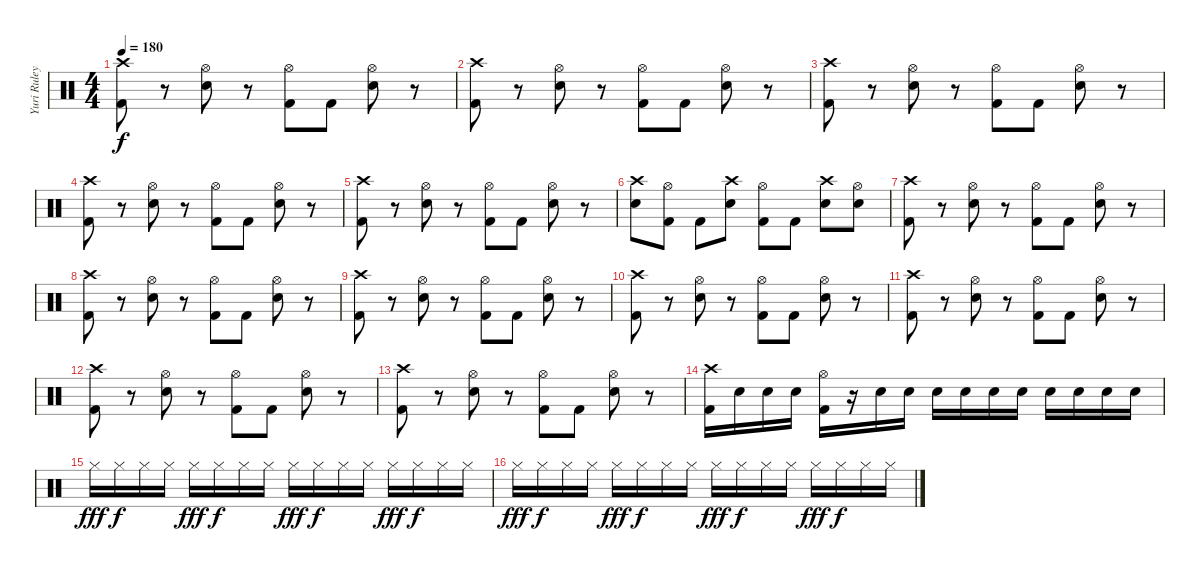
\track ("Yuri Ruley [Drums]" "Yuri Ruley") {instrument percussion}
\staff {score}
\articulation defaults
\ts (4 4)
\tempo 180
\clef neutral
\ks c
("Crash high (hit)" "Kick (hit) 2").8{dy f} r.8 ("Hi-Hat (open)" "Snare (hit) 2").8 r.8 ("Hi-Hat (open)" "Kick (hit) 2").8 "Kick (hit) 2".8 ("Hi-Hat (open)" "Snare (hit) 2").8 r.8 |
("Crash high (hit)" "Kick (hit) 2").8 r.8 ("Hi-Hat (open)" "Snare (hit) 2").8 r.8 ("Hi-Hat (open)" "Kick (hit) 2").8 "Kick (hit) 2".8 ("Hi-Hat (open)" "Snare (hit) 2").8 r.8 |
("Crash high (hit)" "Kick (hit) 2").8 r.8 ("Hi-Hat (open)" "Snare (hit) 2").8 r.8 ("Hi-Hat (open)" "Kick (hit) 2").8 "Kick (hit) 2".8 ("Hi-Hat (open)" "Snare (hit) 2").8 r.8 |
("Crash high (hit)" "Kick (hit) 2").8 r.8 ("Hi-Hat (open)" "Snare (hit) 2").8 r.8 ("Hi-Hat (open)" "Kick (hit) 2").8 "Kick (hit) 2".8 ("Hi-Hat (open)" "Snare (hit) 2").8 r.8 |
("Crash high (hit)" "Kick (hit) 2").8 r.8 ("Hi-Hat (open)" "Snare (hit) 2").8 r.8 ("Hi-Hat (open)" "Kick (hit) 2").8 "Kick (hit) 2".8 ("Hi-Hat (open)" "Snare (hit) 2").8 r.8 |
("Crash high (hit)" "Snare (hit) 2").8 ("Hi-Hat (open)" "Kick (hit) 2").8 "Kick (hit) 2".8 ("Crash high (hit)" "Snare (hit) 2").8 ("Hi-Hat (open)" "Kick (hit) 2").8 "Kick (hit) 2".8 ("Crash high (hit)" "Snare (hit) 2").8 ("Hi-Hat (open)" "Snare (hit) 2").8 |
("Crash high (hit)" "Kick (hit) 2").8 r.8 ("Hi-Hat (open)" "Snare (hit) 2").8 r.8 ("Hi-Hat (open)" "Kick (hit) 2").8 "Kick (hit) 2".8 ("Hi-Hat (open)" "Snare (hit) 2").8 r.8 |
("Crash high (hit)" "Kick (hit) 2").8 r.8 ("Hi-Hat (open)" "Snare (hit) 2").8 r.8 ("Hi-Hat (open)" "Kick (hit) 2").8 "Kick (hit) 2".8 ("Hi-Hat (open)" "Snare (hit) 2").8 r.8 |
("Crash high (hit)" "Kick (hit) 2").8 r.8 ("Hi-Hat (open)" "Snare (hit) 2").8 r.8 ("Hi-Hat (open)" "Kick (hit) 2").8 "Kick (hit) 2".8 ("Hi-Hat (open)" "Snare (hit) 2").8 r.8 |
("Crash high (hit)" "Kick (hit) 2").8 r.8 ("Hi-Hat (open)" "Snare (hit) 2").8 r.8 ("Hi-Hat (open)" "Kick (hit) 2").8 "Kick (hit) 2".8 ("Hi-Hat (open)" "Snare (hit) 2").8 r.8 |
("Crash high (hit)" "Kick (hit) 2").8 r.8 ("Hi-Hat (open)" "Snare (hit) 2").8 r.8 ("Hi-Hat (open)" "Kick (hit) 2").8 "Kick (hit) 2".8 ("Hi-Hat (open)" "Snare (hit) 2").8 r.8 |
("Crash high (hit)" "Kick (hit) 2").8 r.8 ("Hi-Hat (open)" "Snare (hit) 2").8 r.8 ("Hi-Hat (open)" "Kick (hit) 2").8 "Kick (hit) 2".8 ("Hi-Hat (open)" "Snare (hit) 2").8 r.8 |
("Crash high (hit)" "Kick (hit) 2").8 r.8 ("Hi-Hat (open)" "Snare (hit) 2").8 r.8 ("Hi-Hat (open)" "Kick (hit) 2").8 "Kick (hit) 2".8 ("Hi-Hat (open)" "Snare (hit) 2").8 r.8 |
("Crash high (hit)" "Kick (hit) 2").16 "Snare (hit) 2".16 "Snare (hit) 2".16 "Snare (hit) 2".16 ("Hi-Hat (open)" "Kick (hit) 2").16 r.16 "Snare (hit) 2".16 "Snare (hit) 2".16 "Snare (hit) 2".16 "Snare (hit) 2".16 "Snare (hit) 2".16 "Snare (hit) 2".16 "Snare (hit) 2".16 "Snare (hit) 2".16 "Snare (hit) 2".16 "Snare (hit) 2".16 |
"Hi-Hat (closed)".16{dy fff} "Hi-Hat (closed)".16{dy f} "Hi-Hat (closed)".16 "Hi-Hat (closed)".16 "Hi-Hat (closed)".16{dy fff} "Hi-Hat (closed)".16{dy f} "Hi-Hat (closed)".16 "Hi-Hat (closed)".16 "Hi-Hat (closed)".16{dy fff} "Hi-Hat (closed)".16{dy f} "Hi-Hat (closed)".16 "Hi-Hat (closed)".16 "Hi-Hat (closed)".16{dy fff} "Hi-Hat (closed)".16{dy f} "Hi-Hat (closed)".16 "Hi-Hat (closed)".16 |
"Hi-Hat (closed)".16{dy fff} "Hi-Hat (closed)".16{dy f} "Hi-Hat (closed)".16 "Hi-Hat (closed)".16 "Hi-Hat (closed)".16{dy fff} "Hi-Hat (closed)".16{dy f} "Hi-Hat (closed)".16 "Hi-Hat (closed)".16 "Hi-Hat (closed)".16{dy fff} "Hi-Hat (closed)".16{dy f} "Hi-Hat (closed)".16 "Hi-Hat (closed)".16 "Hi-Hat (closed)".16{dy fff} "Hi-Hat (closed)".16{dy f} "Hi-Hat (closed)".16 "Hi-Hat (closed)".16
